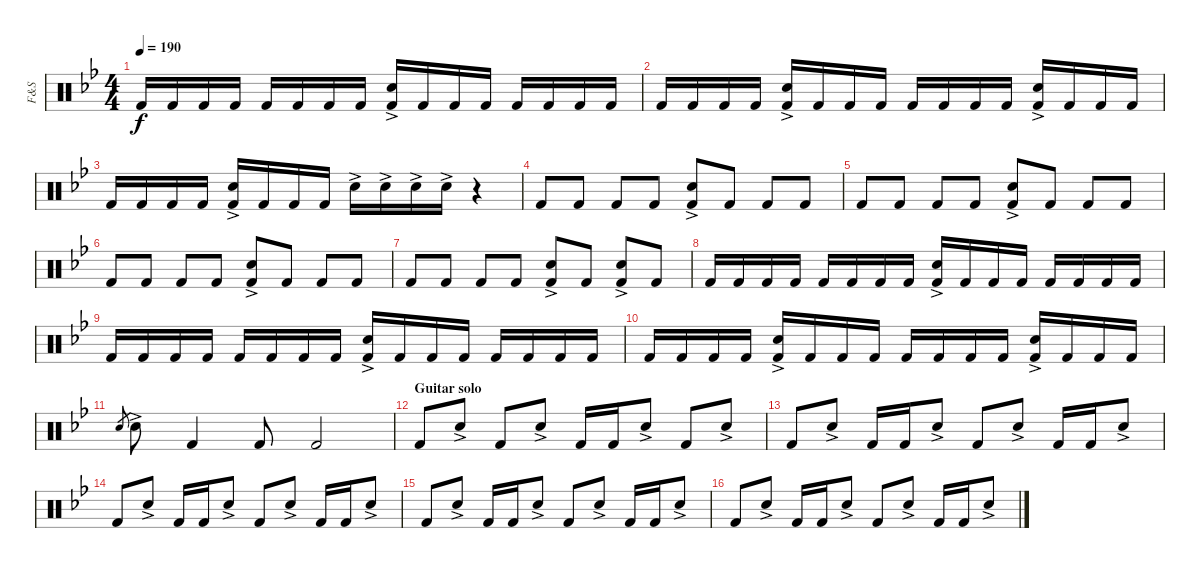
\track ("F&S" "F&S") {instrument percussion}
\staff {score}
\articulation defaults
\ts (4 4)
\tempo 190
\clef neutral
\ks bb "Kick (hit) 2".16{dy f} "Kick (hit) 2".16 "Kick (hit) 2".16 "Kick (hit) 2".16 "Kick (hit) 2".16 "Kick (hit) 2".16 "Kick (hit) 2".16 "Kick (hit) 2".16
("Kick (hit) 2" "Snare (hit) 2"{ac}).16 "Kick (hit) 2".16 "Kick (hit) 2".16 "Kick (hit) 2".16 "Kick (hit) 2".16 "Kick (hit) 2".16 "Kick (hit) 2".16 "Kick (hit) 2".16 |
"Kick (hit) 2".16 "Kick (hit) 2".16 "Kick (hit) 2".16 "Kick (hit) 2".16 ("Kick (hit) 2" "Snare (hit) 2"{ac}).16 "Kick (hit) 2".16 "Kick (hit) 2".16 "Kick (hit) 2".16 "Kick (hit) 2".16 "Kick (hit) 2".16 "Kick (hit) 2".16 "Kick (hit) 2".16 ("Kick (hit) 2" "Snare (hit) 2"{ac}).16 "Kick (hit) 2".16 "Kick (hit) 2".16 "Kick (hit) 2".16 |
"Kick (hit) 2".16 "Kick (hit) 2".16 "Kick (hit) 2".16 "Kick (hit) 2".16 ("Kick (hit) 2" "Snare (hit) 2"{ac}).16 "Kick (hit) 2".16 "Kick (hit) 2".16 "Kick (hit) 2".16 "Snare (hit) 2"{ac}.16 "Snare (hit) 2"{ac}.16 "Snare (hit) 2"{ac}.16 "Snare (hit) 2"{ac}.16 r.4 |
"Kick (hit) 2".8 "Kick (hit) 2".8 "Kick (hit) 2".8 "Kick (hit) 2".8 ("Kick (hit) 2" "Snare (hit) 2"{ac}).8 "Kick (hit) 2".8 "Kick (hit) 2".8 "Kick (hit) 2".8 |
"Kick (hit) 2".8 "Kick (hit) 2".8 "Kick (hit) 2".8 "Kick (hit) 2".8 ("Kick (hit) 2" "Snare (hit) 2"{ac}).8 "Kick (hit) 2".8 "Kick (hit) 2".8 "Kick (hit) 2".8 |
"Kick (hit) 2".8 "Kick (hit) 2".8 "Kick (hit) 2".8 "Kick (hit) 2".8 ("Kick (hit) 2" "Snare (hit) 2"{ac}).8 "Kick (hit) 2".8 "Kick (hit) 2".8 "Kick (hit) 2".8 |
"Kick (hit) 2".8 "Kick (hit) 2".8 "Kick (hit) 2".8 "Kick (hit) 2".8 ("Kick (hit) 2" "Snare (hit) 2"{ac}).8 "Kick (hit) 2".8 ("Kick (hit) 2" "Snare (hit) 2"{ac}).8 "Kick (hit) 2".8 |
"Kick (hit) 2".16 "Kick (hit) 2".16 "Kick (hit) 2".16 "Kick (hit) 2".16 "Kick (hit) 2".16 "Kick (hit) 2".16 "Kick (hit) 2".16 "Kick (hit) 2".16 ("Kick (hit) 2" "Snare (hit) 2"{ac}).16 "Kick (hit) 2".16 "Kick (hit) 2".16 "Kick (hit) 2".16 "Kick (hit) 2".16 "Kick (hit) 2".16 "Kick (hit) 2".16 "Kick (hit) 2".16 |
"Kick (hit) 2".16 "Kick (hit) 2".16 "Kick (hit) 2".16 "Kick (hit) 2".16 "Kick (hit) 2".16 "Kick (hit) 2".16 "Kick (hit) 2".16 "Kick (hit) 2".16 ("Kick (hit) 2" "Snare (hit) 2"{ac}).16 "Kick (hit) 2".16 "Kick (hit) 2".16 "Kick (hit) 2".16 "Kick (hit) 2".16 "Kick (hit) 2".16 "Kick (hit) 2".16 "Kick (hit) 2".16 |
"Kick (hit) 2".16 "Kick (hit) 2".16 "Kick (hit) 2".16 "Kick (hit) 2".16 ("Kick (hit) 2" "Snare (hit) 2"{ac}).16 "Kick (hit) 2".16 "Kick (hit) 2".16 "Kick (hit) 2".16 "Kick (hit) 2".16 "Kick (hit) 2".16 "Kick (hit) 2".16 "Kick (hit) 2".16 ("Kick (hit) 2" "Snare (hit) 2"{ac}).16 "Kick (hit) 2".16 "Kick (hit) 2".16 "Kick (hit) 2".16 |
"Snare (hit)".8{gr} "Snare (hit) 2"{ac}.8 "Kick (hit) 2".4 "Kick (hit) 2".8 "Kick (hit) 2".2 |
\section ("" "Guitar solo")
"Kick (hit) 2".8 "Snare (hit) 2"{ac}.8 "Kick (hit) 2".8 "Snare (hit) 2"{ac}.8 "Kick (hit) 2".16 "Kick (hit) 2".16 "Snare (hit) 2"{ac}.8 "Kick (hit) 2".8 "Snare (hit) 2"{ac}.8 |
"Kick (hit) 2".8 "Snare (hit) 2"{ac}.8 "Kick (hit) 2".16 "Kick (hit) 2".16 "Snare (hit) 2"{ac}.8 "Kick (hit) 2".8 "Snare (hit) 2"{ac}.8 "Kick (hit) 2".16 "Kick (hit) 2".16 "Snare (hit) 2"{ac}.8 |
"Kick (hit) 2".8 "Snare (hit) 2"{ac}.8 "Kick (hit) 2".16 "Kick (hit) 2".16 "Snare (hit) 2"{ac}.8 "Kick (hit) 2".8 "Snare (hit) 2"{ac}.8 "Kick (hit) 2".16 "Kick (hit) 2".16 "Snare (hit) 2"{ac}.8 |
"Kick (hit) 2".8 "Snare (hit) 2"{ac}.8 "Kick (hit) 2".16 "Kick (hit) 2".16 "Snare (hit) 2"{ac}.8 "Kick (hit) 2".8 "Snare (hit) 2"{ac}.8 "Kick (hit) 2".16 "Kick (hit) 2".16 "Snare (hit) 2"{ac}.8 |
"Kick (hit) 2".8 "Snare (hit) 2"{ac}.8 "Kick (hit) 2".16 "Kick (hit) 2".16 "Snare (hit) 2"{ac}.8 "Kick (hit) 2".8 "Snare (hit) 2"{ac}.8 "Kick (hit) 2".16 "Kick (hit) 2".16 "Snare (hit) 2"{ac}.8
